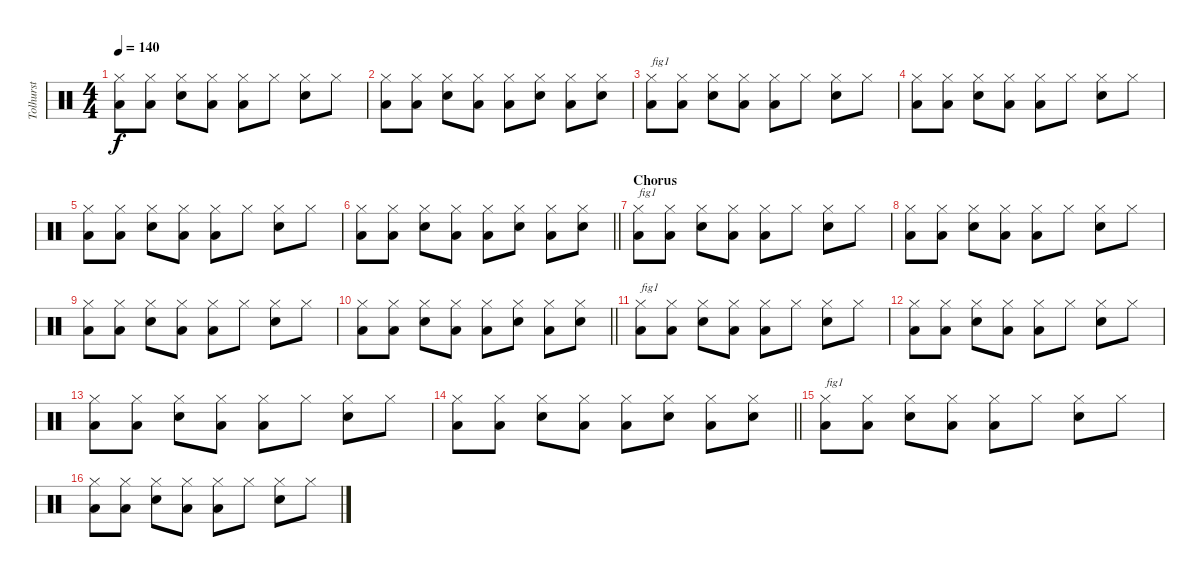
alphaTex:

\track ("Tolhurst" "Tolhurst") {instrument percussion}
\staff {score}
\articulation defaults
\ts (4 4)
\tempo 140
\clef neutral
\ks c
("Low Floor Tom (hit)" "Hi-Hat (closed)").8{dy f} ("Low Floor Tom (hit)" "Hi-Hat (closed)").8 ("Snare (hit) 2" "Hi-Hat (closed)").8 ("Low Floor Tom (hit)" "Hi-Hat (closed)").8 ("Low Floor Tom (hit)" "Hi-Hat (closed)").8 "Hi-Hat (closed)".8 ("Snare (hit) 2" "Hi-Hat (closed)").8 "Hi-Hat (closed)".8 |
("Low Floor Tom (hit)" "Hi-Hat (closed)").8 ("Low Floor Tom (hit)" "Hi-Hat (closed)").8 ("Snare (hit) 2" "Hi-Hat (closed)").8 ("Low Floor Tom (hit)" "Hi-Hat (closed)").8 ("Low Floor Tom (hit)" "Hi-Hat (closed)").8 ("Snare (hit) 2" "Hi-Hat (closed)").8 ("Low Floor Tom (hit)" "Hi-Hat (closed)").8 ("Snare (hit) 2" "Hi-Hat (closed)").8 |
("Low Floor Tom (hit)" "Hi-Hat (closed)").8{txt "fig1"} ("Low Floor Tom (hit)" "Hi-Hat (closed)").8 ("Snare (hit) 2" "Hi-Hat (closed)").8 ("Low Floor Tom (hit)" "Hi-Hat (closed)").8 ("Low Floor Tom (hit)" "Hi-Hat (closed)").8 "Hi-Hat (closed)".8 ("Snare (hit) 2" "Hi-Hat (closed)").8 "Hi-Hat (closed)".8 |
("Low Floor Tom (hit)" "Hi-Hat (closed)").8 ("Low Floor Tom (hit)" "Hi-Hat (closed)").8 ("Snare (hit) 2" "Hi-Hat (closed)").8 ("Low Floor Tom (hit)" "Hi-Hat (closed)").8 ("Low Floor Tom (hit)" "Hi-Hat (closed)").8 "Hi-Hat (closed)".8 ("Snare (hit) 2" "Hi-Hat (closed)").8 "Hi-Hat (closed)".8 |
("Low Floor Tom (hit)" "Hi-Hat (closed)").8 ("Low Floor Tom (hit)" "Hi-Hat (closed)").8 ("Snare (hit) 2" "Hi-Hat (closed)").8 ("Low Floor Tom (hit)" "Hi-Hat (closed)").8 ("Low Floor Tom (hit)" "Hi-Hat (closed)").8 "Hi-Hat (closed)".8 ("Snare (hit) 2" "Hi-Hat (closed)").8 "Hi-Hat (closed)".8 |
\barLineRight lightlight
("Low Floor Tom (hit)" "Hi-Hat (closed)").8 ("Low Floor Tom (hit)" "Hi-Hat (closed)").8 ("Snare (hit) 2" "Hi-Hat (closed)").8 ("Low Floor Tom (hit)" "Hi-Hat (closed)").8 ("Low Floor Tom (hit)" "Hi-Hat (closed)").8 ("Snare (hit) 2" "Hi-Hat (closed)").8 ("Low Floor Tom (hit)" "Hi-Hat (closed)").8 ("Snare (hit) 2" "Hi-Hat (closed)").8 |
\section ("" "Chorus")
("Low Floor Tom (hit)" "Hi-Hat (closed)").8{txt "fig1"} ("Low Floor Tom (hit)" "Hi-Hat (closed)").8 ("Snare (hit) 2" "Hi-Hat (closed)").8 ("Low Floor Tom (hit)" "Hi-Hat (closed)").8 ("Low Floor Tom (hit)" "Hi-Hat (closed)").8 "Hi-Hat (closed)".8 ("Snare (hit) 2" "Hi-Hat (closed)").8 "Hi-Hat (closed)".8 |
("Low Floor Tom (hit)" "Hi-Hat (closed)").8 ("Low Floor Tom (hit)" "Hi-Hat (closed)").8 ("Snare (hit) 2" "Hi-Hat (closed)").8 ("Low Floor Tom (hit)" "Hi-Hat (closed)").8 ("Low Floor Tom (hit)" "Hi-Hat (closed)").8 "Hi-Hat (closed)".8 ("Snare (hit) 2" "Hi-Hat (closed)").8 "Hi-Hat (closed)".8 |
("Low Floor Tom (hit)" "Hi-Hat (closed)").8 ("Low Floor Tom (hit)" "Hi-Hat (closed)").8 ("Snare (hit) 2" "Hi-Hat (closed)").8 ("Low Floor Tom (hit)" "Hi-Hat (closed)").8 ("Low Floor Tom (hit)" "Hi-Hat (closed)").8 "Hi-Hat (closed)".8 ("Snare (hit) 2" "Hi-Hat (closed)").8 "Hi-Hat (closed)".8 |
\barLineRight lightlight
("Low Floor Tom (hit)" "Hi-Hat (closed)").8 ("Low Floor Tom (hit)" "Hi-Hat (closed)").8 ("Snare (hit) 2" "Hi-Hat (closed)").8 ("Low Floor Tom (hit)" "Hi-Hat (closed)").8 ("Low Floor Tom (hit)" "Hi-Hat (closed)").8 ("Snare (hit) 2" "Hi-Hat (closed)").8 ("Low Floor Tom (hit)" "Hi-Hat (closed)").8 ("Snare (hit) 2" "Hi-Hat (closed)").8 |
("Low Floor Tom (hit)" "Hi-Hat (closed)").8{txt "fig1"} ("Low Floor Tom (hit)" "Hi-Hat (closed)").8 ("Snare (hit) 2" "Hi-Hat (closed)").8 ("Low Floor Tom (hit)" "Hi-Hat (closed)").8 ("Low Floor Tom (hit)" "Hi-Hat (closed)").8 "Hi-Hat (closed)".8 ("Snare (hit) 2" "Hi-Hat (closed)").8 "Hi-Hat (closed)".8 |
("Low Floor Tom (hit)" "Hi-Hat (closed)").8 ("Low Floor Tom (hit)" "Hi-Hat (closed)").8 ("Snare (hit) 2" "Hi-Hat (closed)").8 ("Low Floor Tom (hit)" "Hi-Hat (closed)").8 ("Low Floor Tom (hit)" "Hi-Hat (closed)").8 "Hi-Hat (closed)".8 ("Snare (hit) 2" "Hi-Hat (closed)").8 "Hi-Hat (closed)".8 |
("Low Floor Tom (hit)" "Hi-Hat (closed)").8 ("Low Floor Tom (hit)" "Hi-Hat (closed)").8 ("Snare (hit) 2" "Hi-Hat (closed)").8 ("Low Floor Tom (hit)" "Hi-Hat (closed)").8 ("Low Floor Tom (hit)" "Hi-Hat (closed)").8 "Hi-Hat (closed)".8 ("Snare (hit) 2" "Hi-Hat (closed)").8 "Hi-Hat (closed)".8 |
\barLineRight lightlight
("Low Floor Tom (hit)" "Hi-Hat (closed)").8 ("Low Floor Tom (hit)" "Hi-Hat (closed)").8 ("Snare (hit) 2" "Hi-Hat (closed)").8 ("Low Floor Tom (hit)" "Hi-Hat (closed)").8 ("Low Floor Tom (hit)" "Hi-Hat (closed)").8 ("Snare (hit) 2" "Hi-Hat (closed)").8 ("Low Floor Tom (hit)" "Hi-Hat (closed)").8 ("Snare (hit) 2" "Hi-Hat (closed)").8 |
("Low Floor Tom (hit)" "Hi-Hat (closed)").8{txt "fig1"} ("Low Floor Tom (hit)" "Hi-Hat (closed)").8 ("Snare (hit) 2" "Hi-Hat (closed)").8 ("Low Floor Tom (hit)" "Hi-Hat (closed)").8 ("Low Floor Tom (hit)" "Hi-Hat (closed)").8 "Hi-Hat (closed)".8 ("Snare (hit) 2" "Hi-Hat (closed)").8 "Hi-Hat (closed)".8 |
("Low Floor Tom (hit)" "Hi-Hat (closed)").8 ("Low Floor Tom (hit)" "Hi-Hat (closed)").8 ("Snare (hit) 2" "Hi-Hat (closed)").8 ("Low Floor Tom (hit)" "Hi-Hat (closed)").8 ("Low Floor Tom (hit)" "Hi-Hat (closed)").8 "Hi-Hat (closed)".8 ("Snare (hit) 2" "Hi-Hat (closed)").8 "Hi-Hat (closed)".8
